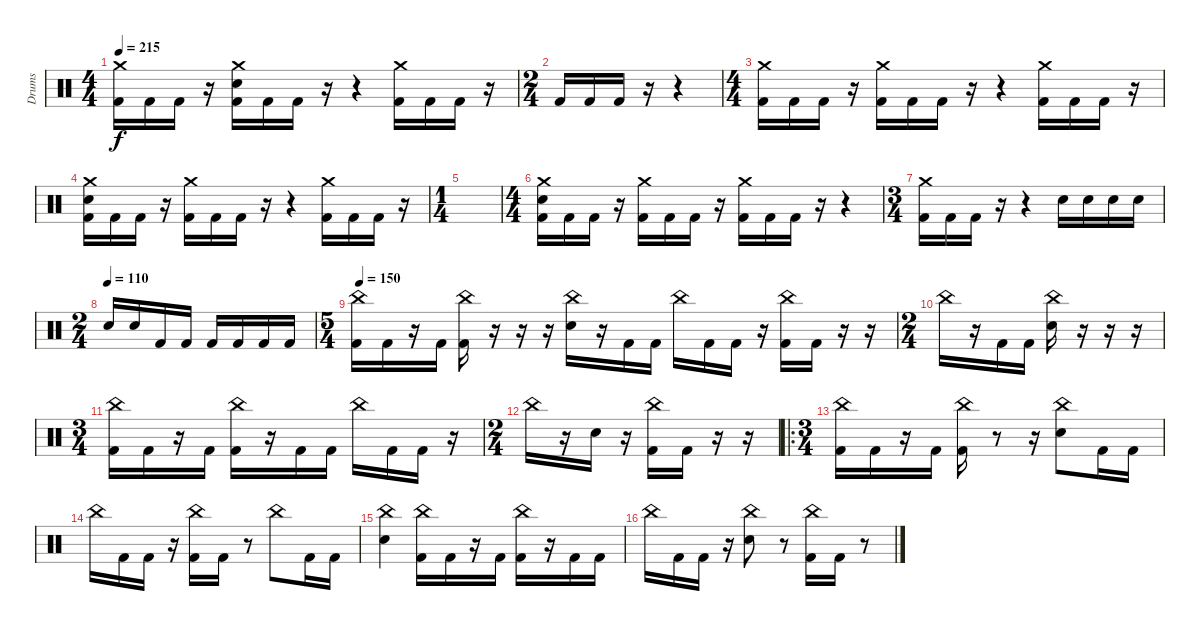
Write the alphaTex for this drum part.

\track ("Drums" "Drums") {instrument percussion}
\staff {score}
\articulation defaults
\ts (4 4)
\tempo 215
\clef neutral
\ks c
("Crash medium (hit)" "Kick (hit) 2").16{dy f} "Kick (hit) 2".16 "Kick (hit) 2".16 r.16 ("Crash medium (hit)" "Electric Snare (hit)" "Kick (hit) 2").16 "Kick (hit) 2".16 "Kick (hit) 2".16 r.16 r.4 ("Crash medium (hit)" "Kick (hit) 2").16 "Kick (hit) 2".16 "Kick (hit) 2".16 r.16 |
\ts (2 4)
"Kick (hit) 2".16 "Kick (hit) 2".16 "Kick (hit) 2".16 r.16 r.4 |
\ts (4 4)
("Crash medium (hit)" "Kick (hit) 2").16 "Kick (hit) 2".16 "Kick (hit) 2".16 r.16 ("Crash medium (hit)" "Kick (hit) 2").16 "Kick (hit) 2".16 "Kick (hit) 2".16 r.16 r.4 ("Crash medium (hit)" "Kick (hit) 2").16 "Kick (hit) 2".16 "Kick (hit) 2".16 r.16 |
("Crash medium (hit)" "Electric Snare (hit)" "Kick (hit) 2").16 "Kick (hit) 2".16 "Kick (hit) 2".16 r.16 ("Crash medium (hit)" "Kick (hit) 2").16 "Kick (hit) 2".16 "Kick (hit) 2".16 r.16 r.4 ("Crash medium (hit)" "Kick (hit) 2").16 "Kick (hit) 2".16 "Kick (hit) 2".16 r.16 |
\ts (1 4)
|
\ts (4 4)
("Crash medium (hit)" "Electric Snare (hit)" "Kick (hit) 2").16 "Kick (hit) 2".16 "Kick (hit) 2".16 r.16 ("Crash medium (hit)" "Kick (hit) 2").16 "Kick (hit) 2".16 "Kick (hit) 2".16 r.16 ("Crash medium (hit)" "Kick (hit) 2").16 "Kick (hit) 2".16 "Kick (hit) 2".16 r.16 r.4 |
\ts (3 4)
("Crash medium (hit)" "Kick (hit) 2").16 "Kick (hit) 2".16 "Kick (hit) 2".16 r.16 r.4 "Snare (hit) 2".16 "Snare (hit) 2".16 "Snare (hit) 2".16 "Snare (hit) 2".16 |
\ts (2 4)
\tempo (110)
"Snare (hit) 2".16 "Snare (hit) 2".16 "Kick (hit) 2".16 "Kick (hit) 2".16 "Kick (hit) 2".16 "Kick (hit) 2".16 "Kick (hit) 2".16 "Kick (hit) 2".16 |
\ts (5 4)
\tempo 150
("China (hit)" "Kick (hit) 2").16 "Kick (hit) 2".16 r.16 "Kick (hit) 2".16 ("China (hit)" "Kick (hit) 2").16 r.16 r.16 r.16 ("China (hit)" "Electric Snare (hit)").16 r.16 "Kick (hit) 2".16 "Kick (hit) 2".16 "China (hit)".16 "Kick (hit) 2".16 "Kick (hit) 2".16 r.16 ("China (hit)" "Kick (hit) 2").16 "Kick (hit) 2".16 r.16 r.16 |
\ts (2 4)
"China (hit)".16 r.16 "Kick (hit) 2".16 "Kick (hit) 2".16 ("China (hit)" "Electric Snare (hit)").16 r.16 r.16 r.16 |
\ts (3 4)
("China (hit)" "Kick (hit) 2").16 "Kick (hit) 2".16 r.16 "Kick (hit) 2".16 ("China (hit)" "Kick (hit) 2").16 r.16 "Kick (hit) 2".16 "Kick (hit) 2".16 "China (hit)".16 "Kick (hit) 2".16 "Kick (hit) 2".16 r.16 |
\ts (2 4)
"China (hit)".16 r.16 "Electric Snare (hit)".16 r.16 ("China (hit)" "Kick (hit) 2").16 "Kick (hit) 2".16 r.16 r.16 |
\ro
\ts (3 4)
("China (hit)" "Kick (hit) 2").16 "Kick (hit) 2".16 r.16 "Kick (hit) 2".16 ("China (hit)" "Kick (hit) 2").16 r.8 r.16 ("China (hit)" "Electric Snare (hit)").8 "Kick (hit) 2".16 "Kick (hit) 2".16 |
"China (hit)".16 "Kick (hit) 2".16 "Kick (hit) 2".16 r.16 ("China (hit)" "Kick (hit) 2").16 "Kick (hit) 2".16 r.8 "China (hit)".8 "Kick (hit) 2".16 "Kick (hit) 2".16 |
("China (hit)" "Electric Snare (hit)").4 ("China (hit)" "Kick (hit) 2").16 "Kick (hit) 2".16 r.16 "Kick (hit) 2".16 ("China (hit)" "Kick (hit) 2").16 r.16 "Kick (hit) 2".16 "Kick (hit) 2".16 |
"China (hit)".16 "Kick (hit) 2".16 "Kick (hit) 2".16 r.16 ("China (hit)" "Electric Snare (hit)").8 r.8 ("China (hit)" "Kick (hit) 2").16 "Kick (hit) 2".16 r.8
